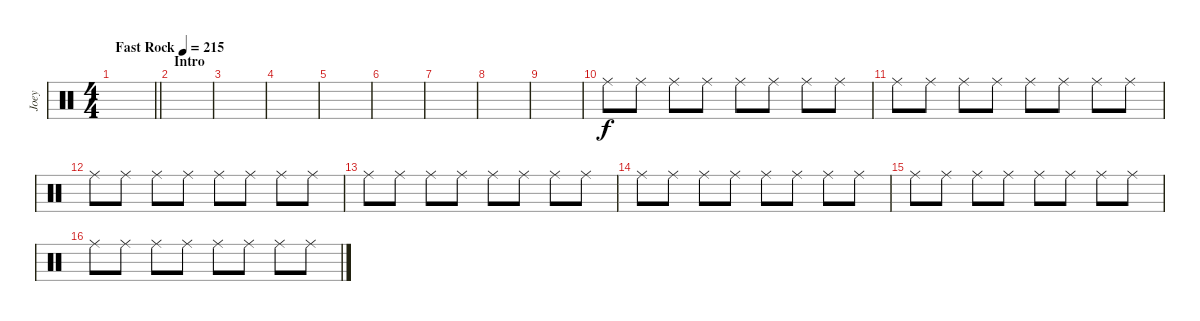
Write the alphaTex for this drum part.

\track ("Joey" "Joey") {instrument percussion}
\staff {score}
\articulation defaults
\ts (4 4)
\tempo (215 "Fast Rock")
\clef neutral
\barLineRight lightlight
\ks c
|
\section ("" "Intro")
|
|
|
|
|
|
|
|
"Ride (middle)".8 "Ride (middle)".8 "Ride (middle)".8 "Ride (middle)".8 "Ride (middle)".8 "Ride (middle)".8 "Ride (middle)".8 "Ride (middle)".8 |
"Ride (middle)".8 "Ride (middle)".8 "Ride (middle)".8 "Ride (middle)".8 "Ride (middle)".8 "Ride (middle)".8 "Ride (middle)".8 "Ride (middle)".8 |
"Ride (middle)".8 "Ride (middle)".8 "Ride (middle)".8 "Ride (middle)".8 "Ride (middle)".8 "Ride (middle)".8 "Ride (middle)".8 "Ride (middle)".8 |
"Ride (middle)".8 "Ride (middle)".8 "Ride (middle)".8 "Ride (middle)".8 "Ride (middle)".8 "Ride (middle)".8 "Ride (middle)".8 "Ride (middle)".8 |
"Ride (middle)".8 "Ride (middle)".8 "Ride (middle)".8 "Ride (middle)".8 "Ride (middle)".8 "Ride (middle)".8 "Ride (middle)".8 "Ride (middle)".8 |
"Ride (middle)".8 "Ride (middle)".8 "Ride (middle)".8 "Ride (middle)".8 "Ride (middle)".8 "Ride (middle)".8 "Ride (middle)".8 "Ride (middle)".8 |
"Ride (middle)".8 "Ride (middle)".8 "Ride (middle)".8 "Ride (middle)".8 "Ride (middle)".8 "Ride (middle)".8 "Ride (middle)".8 "Ride (middle)".8
